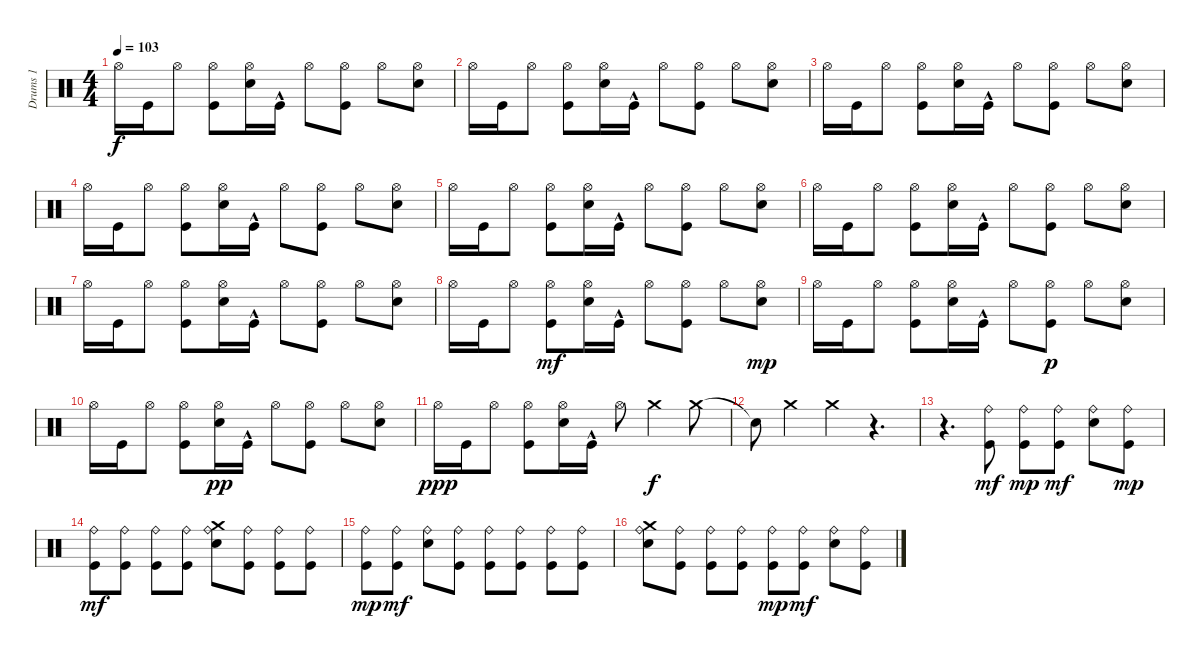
\track ("Drums 1" "Drums 1") {instrument percussion}
\staff {score}
\articulation defaults
\ts (4 4)
\tempo 103
\clef neutral
\ks c "Hi-Hat (open)".16{dy f} "Kick (hit)".16 "Hi-Hat (open)".8
("Kick (hit)" "Hi-Hat (open)").8 ("Electric Snare (hit)" "Hi-Hat (open)").16 "Kick (hit)"{hac}.16 "Hi-Hat (open)".8 ("Kick (hit)" "Hi-Hat (open)").8 "Hi-Hat (open)".8 ("Electric Snare (hit)" "Hi-Hat (open)").8 |
"Hi-Hat (open)".16 "Kick (hit)".16 "Hi-Hat (open)".8 ("Kick (hit)" "Hi-Hat (open)").8 ("Electric Snare (hit)" "Hi-Hat (open)").16 "Kick (hit)"{hac}.16 "Hi-Hat (open)".8 ("Kick (hit)" "Hi-Hat (open)").8 "Hi-Hat (open)".8 ("Electric Snare (hit)" "Hi-Hat (open)").8 |
"Hi-Hat (open)".16 "Kick (hit)".16 "Hi-Hat (open)".8 ("Kick (hit)" "Hi-Hat (open)").8 ("Electric Snare (hit)" "Hi-Hat (open)").16 "Kick (hit)"{hac}.16 "Hi-Hat (open)".8 ("Kick (hit)" "Hi-Hat (open)").8 "Hi-Hat (open)".8 ("Electric Snare (hit)" "Hi-Hat (open)").8 |
"Hi-Hat (open)".16 "Kick (hit)".16 "Hi-Hat (open)".8 ("Kick (hit)" "Hi-Hat (open)").8 ("Electric Snare (hit)" "Hi-Hat (open)").16 "Kick (hit)"{hac}.16 "Hi-Hat (open)".8 ("Kick (hit)" "Hi-Hat (open)").8 "Hi-Hat (open)".8 ("Electric Snare (hit)" "Hi-Hat (open)").8 |
"Hi-Hat (open)".16 "Kick (hit)".16 "Hi-Hat (open)".8 ("Kick (hit)" "Hi-Hat (open)").8 ("Electric Snare (hit)" "Hi-Hat (open)").16 "Kick (hit)"{hac}.16 "Hi-Hat (open)".8 ("Kick (hit)" "Hi-Hat (open)").8 "Hi-Hat (open)".8 ("Electric Snare (hit)" "Hi-Hat (open)").8 |
"Hi-Hat (open)".16 "Kick (hit)".16 "Hi-Hat (open)".8 ("Kick (hit)" "Hi-Hat (open)").8 ("Electric Snare (hit)" "Hi-Hat (open)").16 "Kick (hit)"{hac}.16 "Hi-Hat (open)".8 ("Kick (hit)" "Hi-Hat (open)").8 "Hi-Hat (open)".8 ("Electric Snare (hit)" "Hi-Hat (open)").8 |
"Hi-Hat (open)".16 "Kick (hit)".16 "Hi-Hat (open)".8 ("Kick (hit)" "Hi-Hat (open)").8 ("Electric Snare (hit)" "Hi-Hat (open)").16 "Kick (hit)"{hac}.16 "Hi-Hat (open)".8 ("Kick (hit)" "Hi-Hat (open)").8 "Hi-Hat (open)".8 ("Electric Snare (hit)" "Hi-Hat (open)").8 |
"Hi-Hat (open)".16 "Kick (hit)".16 "Hi-Hat (open)".8 ("Kick (hit)" "Hi-Hat (open)").8{dy mf} ("Electric Snare (hit)" "Hi-Hat (open)").16 "Kick (hit)"{hac}.16 "Hi-Hat (open)".8 ("Kick (hit)" "Hi-Hat (open)").8 "Hi-Hat (open)".8 ("Electric Snare (hit)" "Hi-Hat (open)").8{dy mp} |
"Hi-Hat (open)".16 "Kick (hit)".16 "Hi-Hat (open)".8 ("Kick (hit)" "Hi-Hat (open)").8 ("Electric Snare (hit)" "Hi-Hat (open)").16 "Kick (hit)"{hac}.16 "Hi-Hat (open)".8 ("Kick (hit)" "Hi-Hat (open)").8{dy p} "Hi-Hat (open)".8 ("Electric Snare (hit)" "Hi-Hat (open)").8 |
"Hi-Hat (open)".16 "Kick (hit)".16 "Hi-Hat (open)".8 ("Kick (hit)" "Hi-Hat (open)").8 ("Electric Snare (hit)" "Hi-Hat (open)").16{dy pp} "Kick (hit)"{hac}.16 "Hi-Hat (open)".8 ("Kick (hit)" "Hi-Hat (open)").8 "Hi-Hat (open)".8 ("Electric Snare (hit)" "Hi-Hat (open)").8 |
"Hi-Hat (open)".16{dy ppp} "Kick (hit)".16 "Hi-Hat (open)".8 ("Kick (hit)" "Hi-Hat (open)").8 ("Electric Snare (hit)" "Hi-Hat (open)").16 "Kick (hit)"{hac}.16 "Hi-Hat (open)".8 "Crash medium (hit)".4{dy f} "Crash medium (hit)".8 |
"Snare (hit)"{t}.8 "Crash medium (hit)".4 "Crash medium (hit)".4 r.4{d} |
r.4{d} ("Ride (bell)" "Kick (hit)").8{dy mf} ("Ride (bell)" "Kick (hit)").8{dy mp} ("Ride (bell)" "Kick (hit)").8{dy mf} ("Ride (bell)" "Electric Snare (hit)").8 ("Ride (bell)" "Kick (hit)").8{dy mp} |
("Ride (bell)" "Kick (hit)").8{dy mf} ("Ride (bell)" "Kick (hit)").8 ("Ride (bell)" "Kick (hit)").8 ("Ride (bell)" "Kick (hit)").8 ("Crash medium (hit)" "Ride (bell)" "Electric Snare (hit)").8 ("Ride (bell)" "Kick (hit)").8 ("Ride (bell)" "Kick (hit)").8 ("Ride (bell)" "Kick (hit)").8 |
("Ride (bell)" "Kick (hit)").8{dy mp} ("Ride (bell)" "Kick (hit)").8{dy mf} ("Ride (bell)" "Electric Snare (hit)").8 ("Kick (hit)" "Ride (bell)").8 ("Ride (bell)" "Kick (hit)").8 ("Ride (bell)" "Kick (hit)").8 ("Ride (bell)" "Kick (hit)").8 ("Ride (bell)" "Kick (hit)").8 |
("Crash medium (hit)" "Ride (bell)" "Electric Snare (hit)").8 ("Ride (bell)" "Kick (hit)").8 ("Ride (bell)" "Kick (hit)").8 ("Ride (bell)" "Kick (hit)").8 ("Ride (bell)" "Kick (hit)").8{dy mp} ("Ride (bell)" "Kick (hit)").8{dy mf} ("Ride (bell)" "Electric Snare (hit)").8 ("Ride (bell)" "Kick (hit)").8
